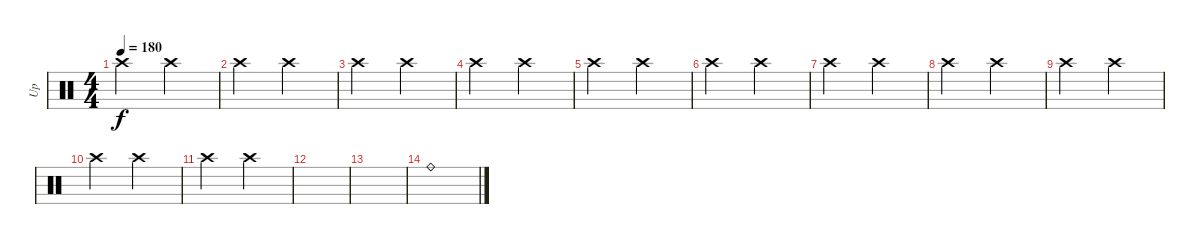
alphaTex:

\track ("Up" "Up") {instrument percussion}
\staff {score}
\articulation defaults
\ts (4 4)
\tempo 180
\clef neutral
\ks c "Crash high (hit)".2{dy f} "Crash high (hit)".2
|
"Crash high (hit)".2 "Crash high (hit)".2 |
"Crash high (hit)".2 "Crash high (hit)".2 |
"Crash high (hit)".2 "Crash high (hit)".2 |
"Crash high (hit)".2 "Crash high (hit)".2 |
"Crash high (hit)".2 "Crash high (hit)".2 |
"Crash high (hit)".2 "Crash high (hit)".2 |
"Crash high (hit)".2 "Crash high (hit)".2 |
"Crash high (hit)".2 "Crash high (hit)".2 |
"Crash high (hit)".2 "Crash high (hit)".2 |
"Crash high (hit)".2 "Crash high (hit)".2 |
|
|
"Ride (bell)".1
